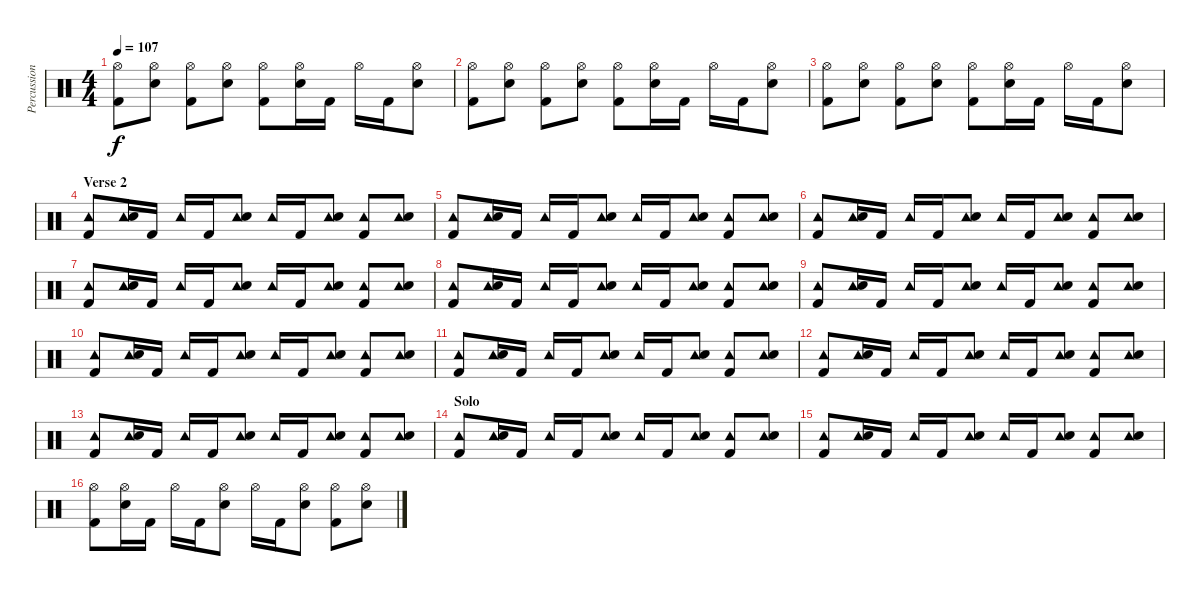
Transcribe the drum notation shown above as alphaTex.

\track ("Percussion" "Percussion") {instrument percussion}
\staff {score}
\articulation defaults
\ts (4 4)
\tempo 107
\clef neutral
\ks c
("Hi-Hat (open)" "Kick (hit) 2").8{dy f} ("Hi-Hat (open)" "Electric Snare (hit)").8 ("Hi-Hat (open)" "Kick (hit) 2").8 ("Hi-Hat (open)" "Electric Snare (hit)").8 ("Hi-Hat (open)" "Kick (hit) 2").8 ("Hi-Hat (open)" "Electric Snare (hit)").16 "Kick (hit) 2".16 "Hi-Hat (open)".16 "Kick (hit) 2".16 ("Hi-Hat (open)" "Electric Snare (hit)").8 |
("Hi-Hat (open)" "Kick (hit) 2").8 ("Hi-Hat (open)" "Electric Snare (hit)").8 ("Hi-Hat (open)" "Kick (hit) 2").8 ("Hi-Hat (open)" "Electric Snare (hit)").8 ("Hi-Hat (open)" "Kick (hit) 2").8 ("Hi-Hat (open)" "Electric Snare (hit)").16 "Kick (hit) 2".16 "Hi-Hat (open)".16 "Kick (hit) 2".16 ("Hi-Hat (open)" "Electric Snare (hit)").8 |
("Hi-Hat (open)" "Kick (hit) 2").8 ("Hi-Hat (open)" "Electric Snare (hit)").8 ("Hi-Hat (open)" "Kick (hit) 2").8 ("Hi-Hat (open)" "Electric Snare (hit)").8 ("Hi-Hat (open)" "Kick (hit) 2").8 ("Hi-Hat (open)" "Electric Snare (hit)").16 "Kick (hit) 2".16 "Hi-Hat (open)".16 "Kick (hit) 2".16 ("Hi-Hat (open)" "Electric Snare (hit)").8 |
\section ("" "Verse 2")
("Tambourine (hit)" "Kick (hit) 2").8 ("Tambourine (hit)" "Electric Snare (hit)").16 "Kick (hit) 2".16 "Tambourine (hit)".16 "Kick (hit) 2".16 ("Tambourine (hit)" "Electric Snare (hit)").8 "Tambourine (hit)".16 "Kick (hit) 2".16 ("Tambourine (hit)" "Electric Snare (hit)").8 ("Tambourine (hit)" "Kick (hit) 2").8 ("Tambourine (hit)" "Electric Snare (hit)").8 |
("Tambourine (hit)" "Kick (hit) 2").8 ("Tambourine (hit)" "Electric Snare (hit)").16 "Kick (hit) 2".16 "Tambourine (hit)".16 "Kick (hit) 2".16 ("Tambourine (hit)" "Electric Snare (hit)").8 "Tambourine (hit)".16 "Kick (hit) 2".16 ("Tambourine (hit)" "Electric Snare (hit)").8 ("Tambourine (hit)" "Kick (hit) 2").8 ("Tambourine (hit)" "Electric Snare (hit)").8 |
("Tambourine (hit)" "Kick (hit) 2").8 ("Tambourine (hit)" "Electric Snare (hit)").16 "Kick (hit) 2".16 "Tambourine (hit)".16 "Kick (hit) 2".16 ("Tambourine (hit)" "Electric Snare (hit)").8 "Tambourine (hit)".16 "Kick (hit) 2".16 ("Tambourine (hit)" "Electric Snare (hit)").8 ("Tambourine (hit)" "Kick (hit) 2").8 ("Tambourine (hit)" "Electric Snare (hit)").8 |
("Tambourine (hit)" "Kick (hit) 2").8 ("Tambourine (hit)" "Electric Snare (hit)").16 "Kick (hit) 2".16 "Tambourine (hit)".16 "Kick (hit) 2".16 ("Tambourine (hit)" "Electric Snare (hit)").8 "Tambourine (hit)".16 "Kick (hit) 2".16 ("Tambourine (hit)" "Electric Snare (hit)").8 ("Tambourine (hit)" "Kick (hit) 2").8 ("Tambourine (hit)" "Electric Snare (hit)").8 |
("Tambourine (hit)" "Kick (hit) 2").8 ("Tambourine (hit)" "Electric Snare (hit)").16 "Kick (hit) 2".16 "Tambourine (hit)".16 "Kick (hit) 2".16 ("Tambourine (hit)" "Electric Snare (hit)").8 "Tambourine (hit)".16 "Kick (hit) 2".16 ("Tambourine (hit)" "Electric Snare (hit)").8 ("Tambourine (hit)" "Kick (hit) 2").8 ("Tambourine (hit)" "Electric Snare (hit)").8 |
("Tambourine (hit)" "Kick (hit) 2").8 ("Tambourine (hit)" "Electric Snare (hit)").16 "Kick (hit) 2".16 "Tambourine (hit)".16 "Kick (hit) 2".16 ("Tambourine (hit)" "Electric Snare (hit)").8 "Tambourine (hit)".16 "Kick (hit) 2".16 ("Tambourine (hit)" "Electric Snare (hit)").8 ("Tambourine (hit)" "Kick (hit) 2").8 ("Tambourine (hit)" "Electric Snare (hit)").8 |
("Tambourine (hit)" "Kick (hit) 2").8 ("Tambourine (hit)" "Electric Snare (hit)").16 "Kick (hit) 2".16 "Tambourine (hit)".16 "Kick (hit) 2".16 ("Tambourine (hit)" "Electric Snare (hit)").8 "Tambourine (hit)".16 "Kick (hit) 2".16 ("Tambourine (hit)" "Electric Snare (hit)").8 ("Tambourine (hit)" "Kick (hit) 2").8 ("Tambourine (hit)" "Electric Snare (hit)").8 |
("Tambourine (hit)" "Kick (hit) 2").8 ("Tambourine (hit)" "Electric Snare (hit)").16 "Kick (hit) 2".16 "Tambourine (hit)".16 "Kick (hit) 2".16 ("Tambourine (hit)" "Electric Snare (hit)").8 "Tambourine (hit)".16 "Kick (hit) 2".16 ("Tambourine (hit)" "Electric Snare (hit)").8 ("Tambourine (hit)" "Kick (hit) 2").8 ("Tambourine (hit)" "Electric Snare (hit)").8 |
("Tambourine (hit)" "Kick (hit) 2").8 ("Tambourine (hit)" "Electric Snare (hit)").16 "Kick (hit) 2".16 "Tambourine (hit)".16 "Kick (hit) 2".16 ("Tambourine (hit)" "Electric Snare (hit)").8 "Tambourine (hit)".16 "Kick (hit) 2".16 ("Tambourine (hit)" "Electric Snare (hit)").8 ("Tambourine (hit)" "Kick (hit) 2").8 ("Tambourine (hit)" "Electric Snare (hit)").8 |
("Tambourine (hit)" "Kick (hit) 2").8 ("Tambourine (hit)" "Electric Snare (hit)").16 "Kick (hit) 2".16 "Tambourine (hit)".16 "Kick (hit) 2".16 ("Tambourine (hit)" "Electric Snare (hit)").8 "Tambourine (hit)".16 "Kick (hit) 2".16 ("Tambourine (hit)" "Electric Snare (hit)").8 ("Tambourine (hit)" "Kick (hit) 2").8 ("Tambourine (hit)" "Electric Snare (hit)").8 |
\section ("" "Solo")
("Tambourine (hit)" "Kick (hit) 2").8 ("Tambourine (hit)" "Electric Snare (hit)").16 "Kick (hit) 2".16 "Tambourine (hit)".16 "Kick (hit) 2".16 ("Tambourine (hit)" "Electric Snare (hit)").8 "Tambourine (hit)".16 "Kick (hit) 2".16 ("Tambourine (hit)" "Electric Snare (hit)").8 ("Tambourine (hit)" "Kick (hit) 2").8 ("Tambourine (hit)" "Electric Snare (hit)").8 |
("Tambourine (hit)" "Kick (hit) 2").8 ("Tambourine (hit)" "Electric Snare (hit)").16 "Kick (hit) 2".16 "Tambourine (hit)".16 "Kick (hit) 2".16 ("Tambourine (hit)" "Electric Snare (hit)").8 "Tambourine (hit)".16 "Kick (hit) 2".16 ("Tambourine (hit)" "Electric Snare (hit)").8 ("Tambourine (hit)" "Kick (hit) 2").8 ("Tambourine (hit)" "Electric Snare (hit)").8 |
("Hi-Hat (open)" "Kick (hit) 2").8 ("Hi-Hat (open)" "Electric Snare (hit)").16 "Kick (hit) 2".16 "Hi-Hat (open)".16 "Kick (hit) 2".16 ("Hi-Hat (open)" "Electric Snare (hit)").8 "Hi-Hat (open)".16 "Kick (hit) 2".16 ("Hi-Hat (open)" "Electric Snare (hit)").8 ("Hi-Hat (open)" "Kick (hit) 2").8 ("Hi-Hat (open)" "Electric Snare (hit)").8
